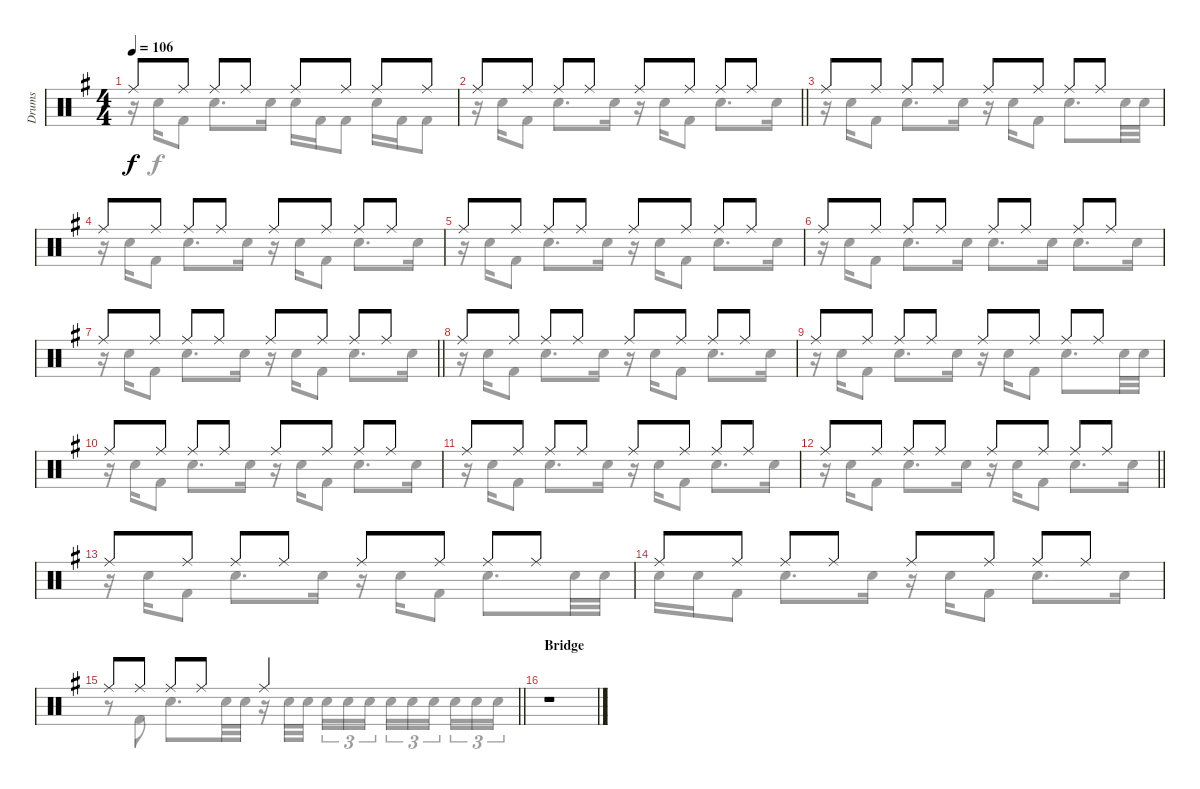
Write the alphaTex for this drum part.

\track ("Drums" "Drums") {instrument percussion}
\staff {score}
\articulation defaults
\voice
\ts (4 4)
\tempo 106
\clef neutral
\ks eminor "Ride (middle)".8{dy f} "Ride (middle)".8 "Ride (middle)".8 "Ride (middle)".8 "Ride (middle)".8 "Ride (middle)".8 "Ride (middle)".8 "Ride (middle)".8
|
\barLineRight lightlight "Ride (middle)".8 "Ride (middle)".8 "Ride (middle)".8 "Ride (middle)".8 "Ride (middle)".8 "Ride (middle)".8 "Ride (middle)".8 "Ride (middle)".8
|
"Ride (middle)".8 "Ride (middle)".8 "Ride (middle)".8 "Ride (middle)".8 "Ride (middle)".8 "Ride (middle)".8 "Ride (middle)".8 "Ride (middle)".8 |
"Ride (middle)".8 "Ride (middle)".8 "Ride (middle)".8 "Ride (middle)".8 "Ride (middle)".8 "Ride (middle)".8 "Ride (middle)".8 "Ride (middle)".8 |
"Ride (middle)".8 "Ride (middle)".8 "Ride (middle)".8 "Ride (middle)".8 "Ride (middle)".8 "Ride (middle)".8 "Ride (middle)".8 "Ride (middle)".8 |
"Ride (middle)".8 "Ride (middle)".8 "Ride (middle)".8 "Ride (middle)".8 "Ride (middle)".8 "Ride (middle)".8 "Ride (middle)".8 "Ride (middle)".8 |
\barLineRight lightlight "Ride (middle)".8 "Ride (middle)".8 "Ride (middle)".8 "Ride (middle)".8 "Ride (middle)".8 "Ride (middle)".8 "Ride (middle)".8 "Ride (middle)".8
|
"Ride (middle)".8 "Ride (middle)".8 "Ride (middle)".8 "Ride (middle)".8 "Ride (middle)".8 "Ride (middle)".8 "Ride (middle)".8 "Ride (middle)".8 |
"Ride (middle)".8 "Ride (middle)".8 "Ride (middle)".8 "Ride (middle)".8 "Ride (middle)".8 "Ride (middle)".8 "Ride (middle)".8 "Ride (middle)".8 |
"Ride (middle)".8 "Ride (middle)".8 "Ride (middle)".8 "Ride (middle)".8 "Ride (middle)".8 "Ride (middle)".8 "Ride (middle)".8 "Ride (middle)".8 |
"Ride (middle)".8 "Ride (middle)".8 "Ride (middle)".8 "Ride (middle)".8 "Ride (middle)".8 "Ride (middle)".8 "Ride (middle)".8 "Ride (middle)".8 |
\barLineRight lightlight "Ride (middle)".8 "Ride (middle)".8 "Ride (middle)".8 "Ride (middle)".8 "Ride (middle)".8 "Ride (middle)".8 "Ride (middle)".8 "Ride (middle)".8
|
"Ride (middle)".8 "Ride (middle)".8 "Ride (middle)".8 "Ride (middle)".8 "Ride (middle)".8 "Ride (middle)".8 "Ride (middle)".8 "Ride (middle)".8 |
"Ride (middle)".8 "Ride (middle)".8 "Ride (middle)".8 "Ride (middle)".8 "Ride (middle)".8 "Ride (middle)".8 "Ride (middle)".8 "Ride (middle)".8 |
\barLineRight lightlight "Ride (middle)".8 "Ride (middle)".8 "Ride (middle)".8 "Ride (middle)".8 "Ride (middle)".2
|
\section ("" "Bridge")
r.1
\voice
\clef neutral
\ottava regular
\simile none
\ks eminor
r.16{dy f} "Electric Snare (hit)".16 "Kick (hit) 2".8 "Electric Snare (hit)".8{d} "Electric Snare (hit)".16 "Electric Snare (hit)".16 "Kick (hit) 2".16 "Kick (hit) 2".8 "Electric Snare (hit)".16 "Kick (hit) 2".16 "Kick (hit) 2".8 |
\barLineRight lightlight
r.16 "Electric Snare (hit)".16 "Kick (hit) 2".8 "Electric Snare (hit)".8{d} "Electric Snare (hit)".16 r.16 "Electric Snare (hit)".16 "Kick (hit) 2".8 "Electric Snare (hit)".8{d} "Electric Snare (hit)".16 |
r.16 "Electric Snare (hit)".16 "Kick (hit) 2".8 "Electric Snare (hit)".8{d} "Electric Snare (hit)".16 r.16 "Electric Snare (hit)".16 "Kick (hit) 2".8 "Electric Snare (hit)".8{d} "Electric Snare (hit)".32 "Electric Snare (hit)".32 |
r.16 "Electric Snare (hit)".16 "Kick (hit) 2".8 "Electric Snare (hit)".8{d} "Electric Snare (hit)".16 r.16 "Electric Snare (hit)".16 "Kick (hit) 2".8 "Electric Snare (hit)".8{d} "Electric Snare (hit)".16 |
r.16 "Electric Snare (hit)".16 "Kick (hit) 2".8 "Electric Snare (hit)".8{d} "Electric Snare (hit)".16 r.16 "Electric Snare (hit)".16 "Kick (hit) 2".8 "Electric Snare (hit)".8{d} "Electric Snare (hit)".16 |
r.16 "Electric Snare (hit)".16 "Kick (hit) 2".8 "Electric Snare (hit)".8{d} "Electric Snare (hit)".16 "Electric Snare (hit)".8{d} "Electric Snare (hit)".16 "Electric Snare (hit)".8{d} "Electric Snare (hit)".16 |
\barLineRight lightlight
r.16 "Electric Snare (hit)".16 "Kick (hit) 2".8 "Electric Snare (hit)".8{d} "Electric Snare (hit)".16 r.16 "Electric Snare (hit)".16 "Kick (hit) 2".8 "Electric Snare (hit)".8{d} "Electric Snare (hit)".16 |
r.16 "Electric Snare (hit)".16 "Kick (hit) 2".8 "Electric Snare (hit)".8{d} "Electric Snare (hit)".16 r.16 "Electric Snare (hit)".16 "Kick (hit) 2".8 "Electric Snare (hit)".8{d} "Electric Snare (hit)".16 |
r.16 "Electric Snare (hit)".16 "Kick (hit) 2".8 "Electric Snare (hit)".8{d} "Electric Snare (hit)".16 r.16 "Electric Snare (hit)".16 "Kick (hit) 2".8 "Electric Snare (hit)".8{d} "Electric Snare (hit)".32 "Electric Snare (hit)".32 |
r.16 "Electric Snare (hit)".16 "Kick (hit) 2".8 "Electric Snare (hit)".8{d} "Electric Snare (hit)".16 r.16 "Electric Snare (hit)".16 "Kick (hit) 2".8 "Electric Snare (hit)".8{d} "Electric Snare (hit)".16 |
r.16 "Electric Snare (hit)".16 "Kick (hit) 2".8 "Electric Snare (hit)".8{d} "Electric Snare (hit)".16 r.16 "Electric Snare (hit)".16 "Kick (hit) 2".8 "Electric Snare (hit)".8{d} "Electric Snare (hit)".16 |
\barLineRight lightlight
r.16 "Electric Snare (hit)".16 "Kick (hit) 2".8 "Electric Snare (hit)".8{d} "Electric Snare (hit)".16 r.16 "Electric Snare (hit)".16 "Kick (hit) 2".8 "Electric Snare (hit)".8{d} "Electric Snare (hit)".16 |
r.16 "Electric Snare (hit)".16 "Kick (hit) 2".8 "Electric Snare (hit)".8{d} "Electric Snare (hit)".16 r.16 "Electric Snare (hit)".16 "Kick (hit) 2".8 "Electric Snare (hit)".8{d} "Electric Snare (hit)".32 "Electric Snare (hit)".32 |
"Electric Snare (hit)".16 "Electric Snare (hit)".16 "Kick (hit) 2".8 "Electric Snare (hit)".8{d} "Electric Snare (hit)".16 r.16 "Electric Snare (hit)".16 "Kick (hit) 2".8 "Electric Snare (hit)".8{d} "Electric Snare (hit)".16 |
\barLineRight lightlight
r.8 "Kick (hit) 2".8 "Electric Snare (hit)".8{d} "Electric Snare (hit)".32 "Electric Snare (hit)".32 r.16 "Electric Snare (hit)".32 "Electric Snare (hit)".32{beam splitsecondary} "Electric Snare (hit)".16{tu (3 2)} "Electric Snare (hit)".16{tu (3 2)} "Electric Snare (hit)".16{tu (3 2)} "Electric Snare (hit)".16{tu (3 2)} "Electric Snare (hit)".16{tu (3 2)} "Electric Snare (hit)".16{tu (3 2) beam splitsecondary} "Electric Snare (hit)".16{tu (3 2)} "Electric Snare (hit)".16{tu (3 2)} "Electric Snare (hit)".16{tu (3 2)} |
